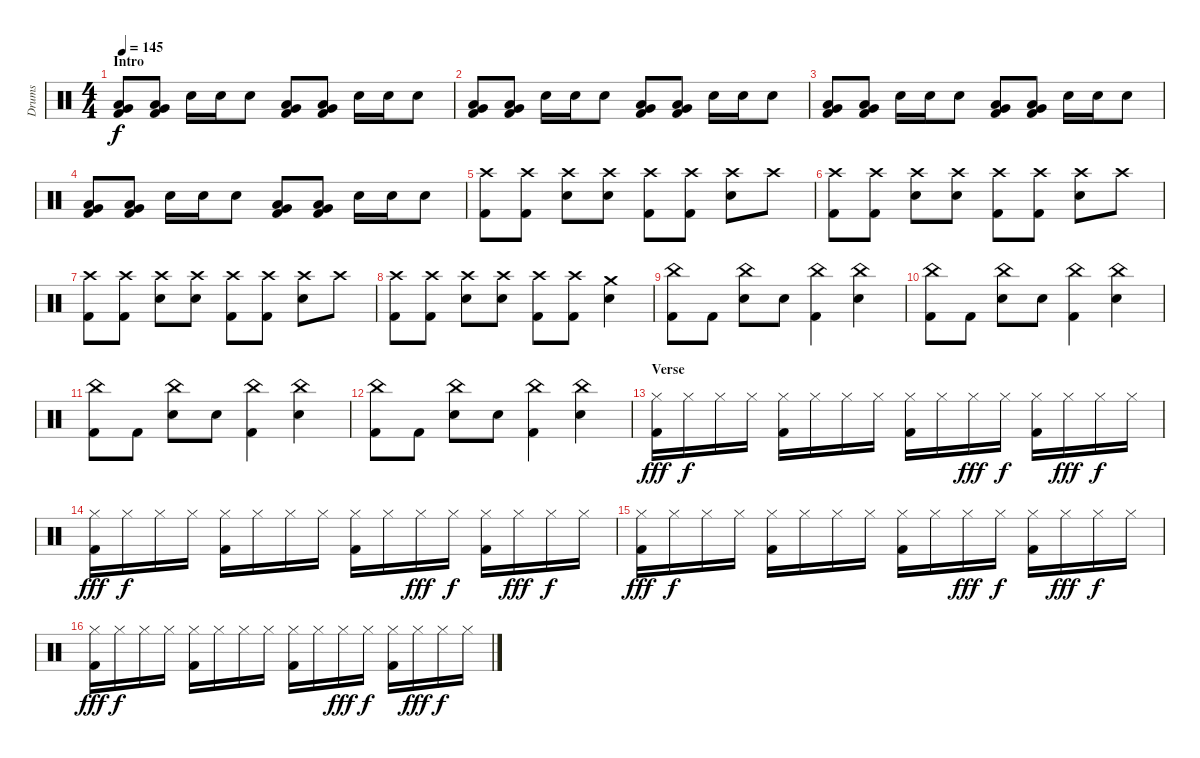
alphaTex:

\track ("Drums" "Drums") {instrument percussion}
\staff {score}
\articulation defaults
\ts (4 4)
\section ("" "Intro")
\tempo 145
\clef neutral
\ks c
("Low Floor Tom (hit)" "Very Low Tom (hit)" "Kick (hit) 2").8{dy f} ("Low Floor Tom (hit)" "Very Low Tom (hit)" "Kick (hit) 2").8 "Electric Snare (hit)".16 "Electric Snare (hit)".16 "Electric Snare (hit)".8 ("Low Floor Tom (hit)" "Very Low Tom (hit)" "Kick (hit) 2").8 ("Low Floor Tom (hit)" "Very Low Tom (hit)" "Kick (hit) 2").8 "Electric Snare (hit)".16 "Electric Snare (hit)".16 "Electric Snare (hit)".8 |
("Low Floor Tom (hit)" "Very Low Tom (hit)" "Kick (hit) 2").8 ("Low Floor Tom (hit)" "Very Low Tom (hit)" "Kick (hit) 2").8 "Electric Snare (hit)".16 "Electric Snare (hit)".16 "Electric Snare (hit)".8 ("Low Floor Tom (hit)" "Very Low Tom (hit)" "Kick (hit) 2").8 ("Low Floor Tom (hit)" "Very Low Tom (hit)" "Kick (hit) 2").8 "Electric Snare (hit)".16 "Electric Snare (hit)".16 "Electric Snare (hit)".8 |
("Low Floor Tom (hit)" "Very Low Tom (hit)" "Kick (hit) 2").8 ("Low Floor Tom (hit)" "Very Low Tom (hit)" "Kick (hit) 2").8 "Electric Snare (hit)".16 "Electric Snare (hit)".16 "Electric Snare (hit)".8 ("Low Floor Tom (hit)" "Very Low Tom (hit)" "Kick (hit) 2").8 ("Low Floor Tom (hit)" "Very Low Tom (hit)" "Kick (hit) 2").8 "Electric Snare (hit)".16 "Electric Snare (hit)".16 "Electric Snare (hit)".8 |
("Low Floor Tom (hit)" "Very Low Tom (hit)" "Kick (hit) 2").8 ("Low Floor Tom (hit)" "Very Low Tom (hit)" "Kick (hit) 2").8 "Electric Snare (hit)".16 "Electric Snare (hit)".16 "Electric Snare (hit)".8 ("Low Floor Tom (hit)" "Very Low Tom (hit)" "Kick (hit) 2").8 ("Low Floor Tom (hit)" "Very Low Tom (hit)" "Kick (hit) 2").8 "Electric Snare (hit)".16 "Electric Snare (hit)".16 "Electric Snare (hit)".8 |
("Crash high (hit)" "Kick (hit) 2").8 ("Crash high (hit)" "Kick (hit) 2").8 ("Crash high (hit)" "Electric Snare (hit)").8 ("Crash high (hit)" "Electric Snare (hit)").8 ("Crash high (hit)" "Kick (hit) 2").8 ("Crash high (hit)" "Kick (hit) 2").8 ("Crash high (hit)" "Electric Snare (hit)").8 "Crash high (hit)".8 |
("Crash high (hit)" "Kick (hit) 2").8 ("Crash high (hit)" "Kick (hit) 2").8 ("Crash high (hit)" "Electric Snare (hit)").8 ("Crash high (hit)" "Electric Snare (hit)").8 ("Crash high (hit)" "Kick (hit) 2").8 ("Crash high (hit)" "Kick (hit) 2").8 ("Crash high (hit)" "Electric Snare (hit)").8 "Crash high (hit)".8 |
("Crash high (hit)" "Kick (hit) 2").8 ("Crash high (hit)" "Kick (hit) 2").8 ("Crash high (hit)" "Electric Snare (hit)").8 ("Crash high (hit)" "Electric Snare (hit)").8 ("Crash high (hit)" "Kick (hit) 2").8 ("Crash high (hit)" "Kick (hit) 2").8 ("Crash high (hit)" "Electric Snare (hit)").8 "Crash high (hit)".8 |
("Crash high (hit)" "Kick (hit) 2").8 ("Crash high (hit)" "Kick (hit) 2").8 ("Crash high (hit)" "Electric Snare (hit)").8 ("Crash high (hit)" "Electric Snare (hit)").8 ("Crash high (hit)" "Kick (hit) 2").8 ("Crash high (hit)" "Kick (hit) 2").8 ("Crash medium (hit)" "Electric Snare (hit)").4 |
("China (hit)" "Kick (hit) 2").8 "Kick (hit) 2".8 ("China (hit)" "Electric Snare (hit)").8 "Electric Snare (hit)".8 ("China (hit)" "Kick (hit) 2").4 ("China (hit)" "Electric Snare (hit)").4 |
("China (hit)" "Kick (hit) 2").8 "Kick (hit) 2".8 ("China (hit)" "Electric Snare (hit)").8 "Electric Snare (hit)".8 ("China (hit)" "Kick (hit) 2").4 ("China (hit)" "Electric Snare (hit)").4 |
("China (hit)" "Kick (hit) 2").8 "Kick (hit) 2".8 ("China (hit)" "Electric Snare (hit)").8 "Electric Snare (hit)".8 ("China (hit)" "Kick (hit) 2").4 ("China (hit)" "Electric Snare (hit)").4 |
("China (hit)" "Kick (hit) 2").8 "Kick (hit) 2".8 ("China (hit)" "Electric Snare (hit)").8 "Electric Snare (hit)".8 ("China (hit)" "Kick (hit) 2").4 ("China (hit)" "Electric Snare (hit)").4 |
\section ("" "Verse")
("Hi-Hat (closed)" "Kick (hit) 2").16{dy fff} "Hi-Hat (closed)".16{dy f} "Hi-Hat (closed)".16 "Hi-Hat (closed)".16 ("Hi-Hat (closed)" "Kick (hit) 2").16 "Hi-Hat (closed)".16 "Hi-Hat (closed)".16 "Hi-Hat (closed)".16 ("Hi-Hat (closed)" "Kick (hit) 2").16 "Hi-Hat (closed)".16 "Hi-Hat (closed)".16{dy fff} "Hi-Hat (closed)".16{dy f} ("Hi-Hat (closed)" "Kick (hit) 2").16 "Hi-Hat (closed)".16{dy fff} "Hi-Hat (closed)".16{dy f} "Hi-Hat (closed)".16 |
("Hi-Hat (closed)" "Kick (hit) 2").16{dy fff} "Hi-Hat (closed)".16{dy f} "Hi-Hat (closed)".16 "Hi-Hat (closed)".16 ("Hi-Hat (closed)" "Kick (hit) 2").16 "Hi-Hat (closed)".16 "Hi-Hat (closed)".16 "Hi-Hat (closed)".16 ("Hi-Hat (closed)" "Kick (hit) 2").16 "Hi-Hat (closed)".16 "Hi-Hat (closed)".16{dy fff} "Hi-Hat (closed)".16{dy f} ("Hi-Hat (closed)" "Kick (hit) 2").16 "Hi-Hat (closed)".16{dy fff} "Hi-Hat (closed)".16{dy f} "Hi-Hat (closed)".16 |
("Hi-Hat (closed)" "Kick (hit) 2").16{dy fff} "Hi-Hat (closed)".16{dy f} "Hi-Hat (closed)".16 "Hi-Hat (closed)".16 ("Hi-Hat (closed)" "Kick (hit) 2").16 "Hi-Hat (closed)".16 "Hi-Hat (closed)".16 "Hi-Hat (closed)".16 ("Hi-Hat (closed)" "Kick (hit) 2").16 "Hi-Hat (closed)".16 "Hi-Hat (closed)".16{dy fff} "Hi-Hat (closed)".16{dy f} ("Hi-Hat (closed)" "Kick (hit) 2").16 "Hi-Hat (closed)".16{dy fff} "Hi-Hat (closed)".16{dy f} "Hi-Hat (closed)".16 |
("Hi-Hat (closed)" "Kick (hit) 2").16{dy fff} "Hi-Hat (closed)".16{dy f} "Hi-Hat (closed)".16 "Hi-Hat (closed)".16 ("Hi-Hat (closed)" "Kick (hit) 2").16 "Hi-Hat (closed)".16 "Hi-Hat (closed)".16 "Hi-Hat (closed)".16 ("Hi-Hat (closed)" "Kick (hit) 2").16 "Hi-Hat (closed)".16 "Hi-Hat (closed)".16{dy fff} "Hi-Hat (closed)".16{dy f} ("Hi-Hat (closed)" "Kick (hit) 2").16 "Hi-Hat (closed)".16{dy fff} "Hi-Hat (closed)".16{dy f} "Hi-Hat (closed)".16
